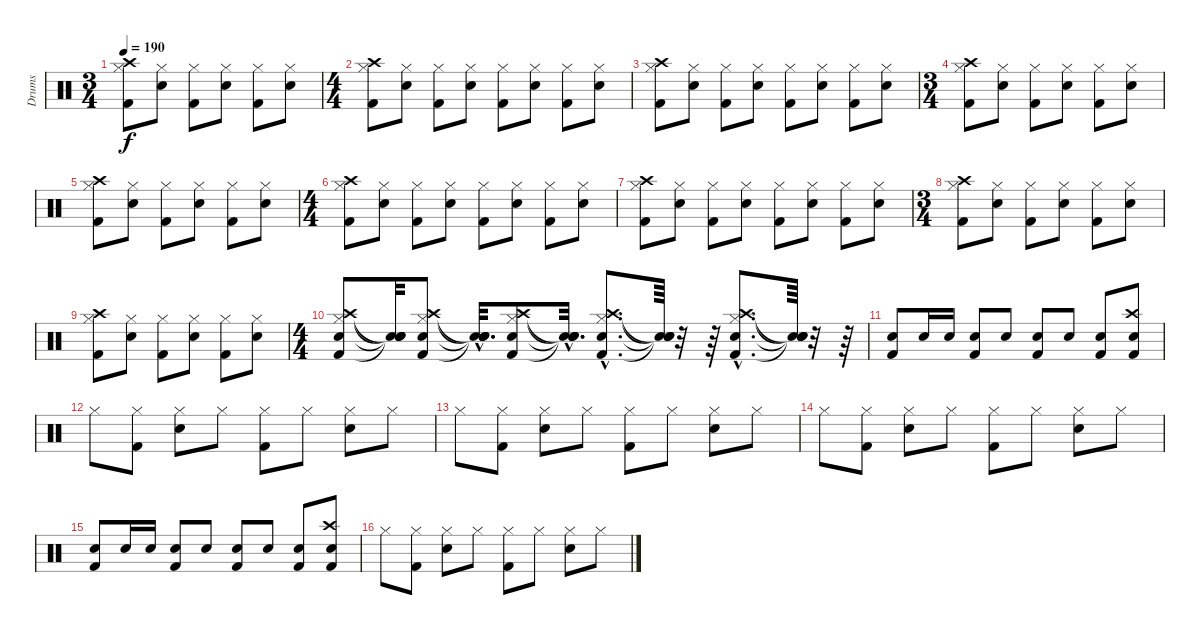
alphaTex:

\track ("Drums" "Drums") {instrument percussion}
\staff {score}
\articulation defaults
\ts (3 4)
\tempo 190
\clef neutral
\ks c
("Kick (hit) 2" "Hi-Hat (closed)" "Crash high (hit)").8{dy f} ("Snare (hit) 2" "Hi-Hat (closed)").8 ("Kick (hit) 2" "Hi-Hat (closed)").8 ("Snare (hit) 2" "Hi-Hat (closed)").8 ("Kick (hit) 2" "Hi-Hat (closed)").8 ("Snare (hit) 2" "Hi-Hat (closed)").8 |
\ts (4 4)
("Kick (hit) 2" "Hi-Hat (closed)" "Crash high (hit)").8 ("Snare (hit) 2" "Hi-Hat (closed)").8 ("Kick (hit) 2" "Hi-Hat (closed)").8 ("Snare (hit) 2" "Hi-Hat (closed)").8 ("Kick (hit) 2" "Hi-Hat (closed)").8 ("Snare (hit) 2" "Hi-Hat (closed)").8 ("Kick (hit) 2" "Hi-Hat (closed)").8 ("Snare (hit) 2" "Hi-Hat (closed)").8 |
("Kick (hit) 2" "Hi-Hat (closed)" "Crash high (hit)").8 ("Snare (hit) 2" "Hi-Hat (closed)").8 ("Kick (hit) 2" "Hi-Hat (closed)").8 ("Snare (hit) 2" "Hi-Hat (closed)").8 ("Kick (hit) 2" "Hi-Hat (closed)").8 ("Snare (hit) 2" "Hi-Hat (closed)").8 ("Kick (hit) 2" "Hi-Hat (closed)").8 ("Snare (hit) 2" "Hi-Hat (closed)").8 |
\ts (3 4)
("Kick (hit) 2" "Hi-Hat (closed)" "Crash high (hit)").8 ("Snare (hit) 2" "Hi-Hat (closed)").8 ("Kick (hit) 2" "Hi-Hat (closed)").8 ("Snare (hit) 2" "Hi-Hat (closed)").8 ("Kick (hit) 2" "Hi-Hat (closed)").8 ("Snare (hit) 2" "Hi-Hat (closed)").8 |
("Kick (hit) 2" "Hi-Hat (closed)" "Crash high (hit)").8 ("Snare (hit) 2" "Hi-Hat (closed)").8 ("Kick (hit) 2" "Hi-Hat (closed)").8 ("Snare (hit) 2" "Hi-Hat (closed)").8 ("Kick (hit) 2" "Hi-Hat (closed)").8 ("Snare (hit) 2" "Hi-Hat (closed)").8 |
\ts (4 4)
("Kick (hit) 2" "Hi-Hat (closed)" "Crash high (hit)").8 ("Snare (hit) 2" "Hi-Hat (closed)").8 ("Kick (hit) 2" "Hi-Hat (closed)").8 ("Snare (hit) 2" "Hi-Hat (closed)").8 ("Kick (hit) 2" "Hi-Hat (closed)").8 ("Snare (hit) 2" "Hi-Hat (closed)").8 ("Kick (hit) 2" "Hi-Hat (closed)").8 ("Snare (hit) 2" "Hi-Hat (closed)").8 |
("Kick (hit) 2" "Hi-Hat (closed)" "Crash high (hit)").8 ("Snare (hit) 2" "Hi-Hat (closed)").8 ("Kick (hit) 2" "Hi-Hat (closed)").8 ("Snare (hit) 2" "Hi-Hat (closed)").8 ("Kick (hit) 2" "Hi-Hat (closed)").8 ("Snare (hit) 2" "Hi-Hat (closed)").8 ("Kick (hit) 2" "Hi-Hat (closed)").8 ("Snare (hit) 2" "Hi-Hat (closed)").8 |
\ts (3 4)
("Kick (hit) 2" "Hi-Hat (closed)" "Crash high (hit)").8 ("Snare (hit) 2" "Hi-Hat (closed)").8 ("Kick (hit) 2" "Hi-Hat (closed)").8 ("Snare (hit) 2" "Hi-Hat (closed)").8 ("Kick (hit) 2" "Hi-Hat (closed)").8 ("Snare (hit) 2" "Hi-Hat (closed)").8 |
("Kick (hit) 2" "Hi-Hat (closed)" "Crash high (hit)").8 ("Snare (hit) 2" "Hi-Hat (closed)").8 ("Kick (hit) 2" "Hi-Hat (closed)").8 ("Snare (hit) 2" "Hi-Hat (closed)").8 ("Kick (hit) 2" "Hi-Hat (closed)").8 ("Snare (hit) 2" "Hi-Hat (closed)").8 |
\ts (4 4)
("Kick (hit) 2" "Snare (hit) 2" "Hi-Hat (closed)" "Crash high (hit)").8 ("Snare (hit)"{t} "Snare (hit)"{t} "Snare (hit)"{t} "Snare (hit)"{t}).32 ("Kick (hit) 2" "Snare (hit) 2" "Hi-Hat (closed)" "Crash high (hit)").8 ("Snare (hit)"{hac t} "Snare (hit)"{hac t} "Snare (hit)"{hac t} "Snare (hit)"{hac t}).32{d} ("Kick (hit) 2" "Snare (hit) 2" "Hi-Hat (closed)" "Crash high (hit)").8 ("Snare (hit)"{hac t} "Snare (hit)"{hac t} "Snare (hit)"{hac t} "Snare (hit)"{hac t}).32{d} ("Kick (hit) 2"{hac} "Snare (hit) 2"{hac} "Hi-Hat (closed)"{hac} "Crash high (hit)"{hac}).8{d} ("Snare (hit)"{t} "Snare (hit)"{t} "Snare (hit)"{t} "Snare (hit)"{t}).64 r.32 r.64 ("Kick (hit) 2"{hac} "Snare (hit) 2"{hac} "Hi-Hat (closed)"{hac} "Crash high (hit)"{hac}).8{d} ("Snare (hit)"{t} "Snare (hit)"{t} "Snare (hit)"{t} "Snare (hit)"{t}).64 r.32 r.64 |
("Kick (hit) 2" "Snare (hit) 2").8 "Snare (hit) 2".16 "Snare (hit) 2".16 ("Kick (hit) 2" "Snare (hit) 2").8 "Snare (hit) 2".8 ("Kick (hit) 2" "Snare (hit) 2").8 "Snare (hit) 2".8 ("Kick (hit) 2" "Snare (hit) 2").8 ("Kick (hit) 2" "Snare (hit) 2" "Crash high (hit)").8 |
"Hi-Hat (closed)".8 ("Kick (hit) 2" "Hi-Hat (closed)").8 ("Snare (hit) 2" "Hi-Hat (closed)").8 "Hi-Hat (closed)".8 ("Kick (hit) 2" "Hi-Hat (closed)").8 "Hi-Hat (closed)".8 ("Snare (hit) 2" "Hi-Hat (closed)").8 "Hi-Hat (closed)".8 |
"Hi-Hat (closed)".8 ("Kick (hit) 2" "Hi-Hat (closed)").8 ("Snare (hit) 2" "Hi-Hat (closed)").8 "Hi-Hat (closed)".8 ("Kick (hit) 2" "Hi-Hat (closed)").8 "Hi-Hat (closed)".8 ("Snare (hit) 2" "Hi-Hat (closed)").8 "Hi-Hat (closed)".8 |
"Hi-Hat (closed)".8 ("Kick (hit) 2" "Hi-Hat (closed)").8 ("Snare (hit) 2" "Hi-Hat (closed)").8 "Hi-Hat (closed)".8 ("Kick (hit) 2" "Hi-Hat (closed)").8 "Hi-Hat (closed)".8 ("Snare (hit) 2" "Hi-Hat (closed)").8 "Hi-Hat (closed)".8 |
("Kick (hit) 2" "Snare (hit) 2").8 "Snare (hit) 2".16 "Snare (hit) 2".16 ("Kick (hit) 2" "Snare (hit) 2").8 "Snare (hit) 2".8 ("Kick (hit) 2" "Snare (hit) 2").8 "Snare (hit) 2".8 ("Kick (hit) 2" "Snare (hit) 2").8 ("Kick (hit) 2" "Snare (hit) 2" "Crash high (hit)").8 |
"Hi-Hat (closed)".8 ("Kick (hit) 2" "Hi-Hat (closed)").8 ("Snare (hit) 2" "Hi-Hat (closed)").8 "Hi-Hat (closed)".8 ("Kick (hit) 2" "Hi-Hat (closed)").8 "Hi-Hat (closed)".8 ("Snare (hit) 2" "Hi-Hat (closed)").8 "Hi-Hat (closed)".8
